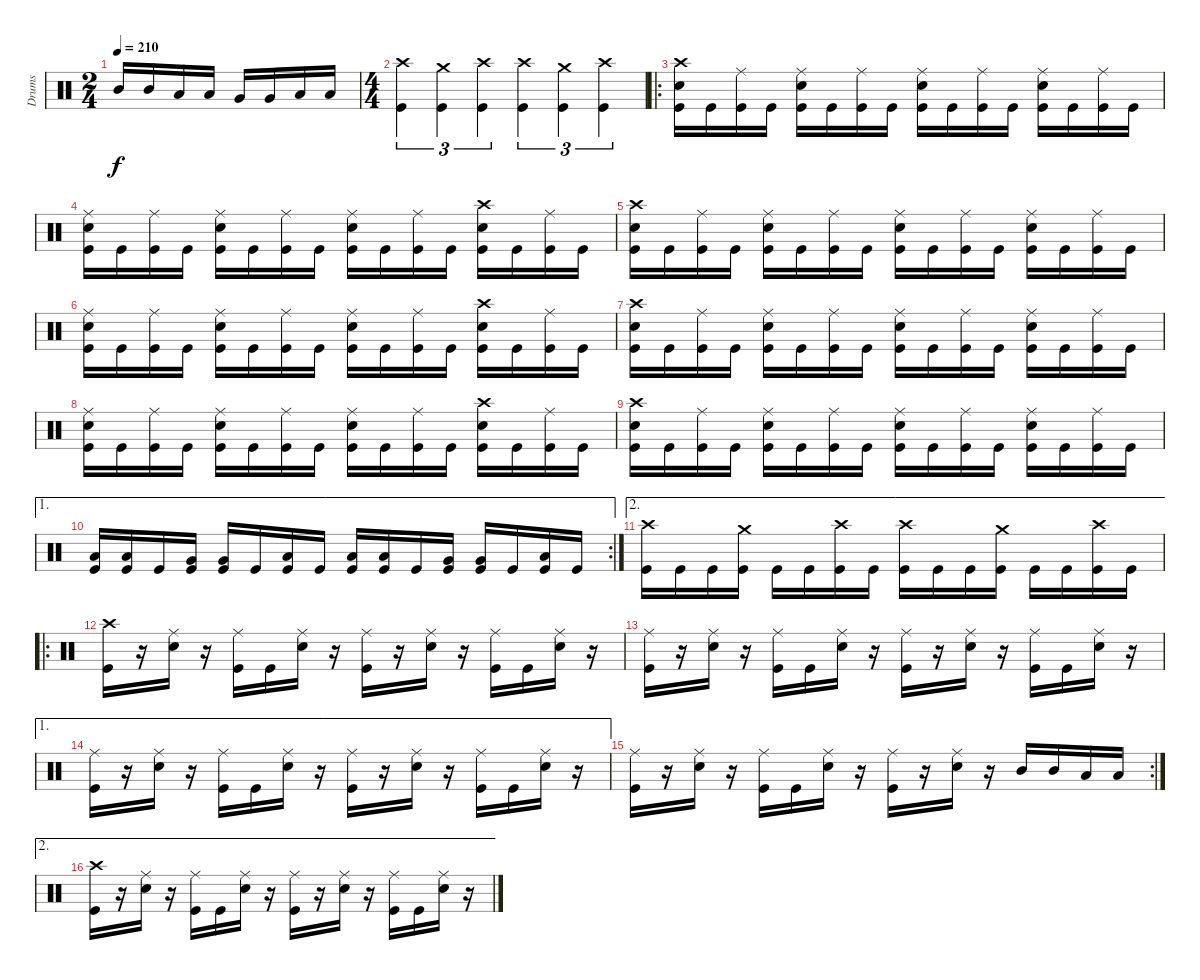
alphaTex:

\track ("Drums" "Drums") {instrument percussion}
\staff {score}
\articulation defaults
\ts (2 4)
\tempo 210
\clef neutral
\ks c "Mid Tom (hit)".16{dy f} "Mid Tom (hit)".16 "Low Tom (hit)".16 "Low Tom (hit)".16 "Very Low Tom (hit)".16 "Very Low Tom (hit)".16 "Low Floor Tom (hit)".16 "Low Floor Tom (hit)".16
|
\ts (4 4)
("Crash high (hit)" "Kick (hit)").4{tu (3 2)} ("Crash medium (hit)" "Kick (hit)").4{tu (3 2)} ("Crash high (hit)" "Kick (hit)").4{tu (3 2)} ("Crash high (hit)" "Kick (hit)").4{tu (3 2)} ("Crash medium (hit)" "Kick (hit)").4{tu (3 2)} ("Crash high (hit)" "Kick (hit)").4{tu (3 2)} |
\ro
("Crash high (hit)" "Snare (hit) 2" "Kick (hit)").16 "Kick (hit)".16 ("Ride (middle)" "Kick (hit)").16 "Kick (hit)".16 ("Ride (middle)" "Snare (hit) 2" "Kick (hit)").16 "Kick (hit)".16 ("Ride (middle)" "Kick (hit)").16 "Kick (hit)".16 ("Ride (middle)" "Snare (hit) 2" "Kick (hit)").16 "Kick (hit)".16 ("Ride (middle)" "Kick (hit)").16 "Kick (hit)".16 ("Ride (middle)" "Snare (hit) 2" "Kick (hit)").16 "Kick (hit)".16 ("Ride (middle)" "Kick (hit)").16 "Kick (hit)".16 |
("Ride (middle)" "Snare (hit) 2" "Kick (hit)").16 "Kick (hit)".16 ("Ride (middle)" "Kick (hit)").16 "Kick (hit)".16 ("Ride (middle)" "Snare (hit) 2" "Kick (hit)").16 "Kick (hit)".16 ("Ride (middle)" "Kick (hit)").16 "Kick (hit)".16 ("Ride (middle)" "Snare (hit) 2" "Kick (hit)").16 "Kick (hit)".16 ("Ride (middle)" "Kick (hit)").16 "Kick (hit)".16 ("Crash high (hit)" "Snare (hit) 2" "Kick (hit)").16 "Kick (hit)".16 ("Ride (middle)" "Kick (hit)").16 "Kick (hit)".16 |
("Crash high (hit)" "Snare (hit) 2" "Kick (hit)").16 "Kick (hit)".16 ("Ride (middle)" "Kick (hit)").16 "Kick (hit)".16 ("Ride (middle)" "Snare (hit) 2" "Kick (hit)").16 "Kick (hit)".16 ("Ride (middle)" "Kick (hit)").16 "Kick (hit)".16 ("Ride (middle)" "Snare (hit) 2" "Kick (hit)").16 "Kick (hit)".16 ("Ride (middle)" "Kick (hit)").16 "Kick (hit)".16 ("Ride (middle)" "Snare (hit) 2" "Kick (hit)").16 "Kick (hit)".16 ("Ride (middle)" "Kick (hit)").16 "Kick (hit)".16 |
("Ride (middle)" "Snare (hit) 2" "Kick (hit)").16 "Kick (hit)".16 ("Ride (middle)" "Kick (hit)").16 "Kick (hit)".16 ("Ride (middle)" "Snare (hit) 2" "Kick (hit)").16 "Kick (hit)".16 ("Ride (middle)" "Kick (hit)").16 "Kick (hit)".16 ("Ride (middle)" "Snare (hit) 2" "Kick (hit)").16 "Kick (hit)".16 ("Ride (middle)" "Kick (hit)").16 "Kick (hit)".16 ("Crash high (hit)" "Snare (hit) 2" "Kick (hit)").16 "Kick (hit)".16 ("Ride (middle)" "Kick (hit)").16 "Kick (hit)".16 |
("Crash high (hit)" "Snare (hit) 2" "Kick (hit)").16 "Kick (hit)".16 ("Ride (middle)" "Kick (hit)").16 "Kick (hit)".16 ("Ride (middle)" "Snare (hit) 2" "Kick (hit)").16 "Kick (hit)".16 ("Ride (middle)" "Kick (hit)").16 "Kick (hit)".16 ("Ride (middle)" "Snare (hit) 2" "Kick (hit)").16 "Kick (hit)".16 ("Ride (middle)" "Kick (hit)").16 "Kick (hit)".16 ("Ride (middle)" "Snare (hit) 2" "Kick (hit)").16 "Kick (hit)".16 ("Ride (middle)" "Kick (hit)").16 "Kick (hit)".16 |
("Ride (middle)" "Snare (hit) 2" "Kick (hit)").16 "Kick (hit)".16 ("Ride (middle)" "Kick (hit)").16 "Kick (hit)".16 ("Ride (middle)" "Snare (hit) 2" "Kick (hit)").16 "Kick (hit)".16 ("Ride (middle)" "Kick (hit)").16 "Kick (hit)".16 ("Ride (middle)" "Snare (hit) 2" "Kick (hit)").16 "Kick (hit)".16 ("Ride (middle)" "Kick (hit)").16 "Kick (hit)".16 ("Crash high (hit)" "Snare (hit) 2" "Kick (hit)").16 "Kick (hit)".16 ("Ride (middle)" "Kick (hit)").16 "Kick (hit)".16 |
("Crash high (hit)" "Snare (hit) 2" "Kick (hit)").16 "Kick (hit)".16 ("Ride (middle)" "Kick (hit)").16 "Kick (hit)".16 ("Ride (middle)" "Snare (hit) 2" "Kick (hit)").16 "Kick (hit)".16 ("Ride (middle)" "Kick (hit)").16 "Kick (hit)".16 ("Ride (middle)" "Snare (hit) 2" "Kick (hit)").16 "Kick (hit)".16 ("Ride (middle)" "Kick (hit)").16 "Kick (hit)".16 ("Ride (middle)" "Snare (hit) 2" "Kick (hit)").16 "Kick (hit)".16 ("Ride (middle)" "Kick (hit)").16 "Kick (hit)".16 |
\ae 1
\rc 2
("Low Tom (hit)" "Kick (hit)").16 ("Low Tom (hit)" "Kick (hit)").16 "Kick (hit)".16 ("Very Low Tom (hit)" "Kick (hit)").16 ("Very Low Tom (hit)" "Kick (hit)").16 "Kick (hit)".16 ("Low Floor Tom (hit)" "Kick (hit)").16 "Kick (hit)".16 ("Low Tom (hit)" "Kick (hit)").16 ("Low Tom (hit)" "Kick (hit)").16 "Kick (hit)".16 ("Very Low Tom (hit)" "Kick (hit)").16 ("Very Low Tom (hit)" "Kick (hit)").16 "Kick (hit)".16 ("Low Floor Tom (hit)" "Kick (hit)").16 "Kick (hit)".16 |
\ae 2
("Crash high (hit)" "Kick (hit)").16 "Kick (hit)".16 "Kick (hit)".16 ("Crash medium (hit)" "Kick (hit)").16 "Kick (hit)".16 "Kick (hit)".16 ("Crash high (hit)" "Kick (hit)").16 "Kick (hit)".16 ("Crash high (hit)" "Kick (hit)").16 "Kick (hit)".16 "Kick (hit)".16 ("Crash medium (hit)" "Kick (hit)").16 "Kick (hit)".16 "Kick (hit)".16 ("Crash high (hit)" "Kick (hit)").16 "Kick (hit)".16 |
\ro
("Crash high (hit)" "Kick (hit)").16 r.16 ("Ride (middle)" "Snare (hit) 2").16 r.16 ("Ride (middle)" "Kick (hit)").16 "Kick (hit)".16 ("Ride (middle)" "Snare (hit) 2").16 r.16 ("Ride (middle)" "Kick (hit)").16 r.16 ("Ride (middle)" "Snare (hit) 2").16 r.16 ("Ride (middle)" "Kick (hit)").16 "Kick (hit)".16 ("Ride (middle)" "Snare (hit) 2").16 r.16 |
("Ride (middle)" "Kick (hit)").16 r.16 ("Ride (middle)" "Snare (hit) 2").16 r.16 ("Ride (middle)" "Kick (hit)").16 "Kick (hit)".16 ("Ride (middle)" "Snare (hit) 2").16 r.16 ("Ride (middle)" "Kick (hit)").16 r.16 ("Ride (middle)" "Snare (hit) 2").16 r.16 ("Ride (middle)" "Kick (hit)").16 "Kick (hit)".16 ("Ride (middle)" "Snare (hit) 2").16 r.16 |
\ae 1
("Ride (middle)" "Kick (hit)").16 r.16 ("Ride (middle)" "Snare (hit) 2").16 r.16 ("Ride (middle)" "Kick (hit)").16 "Kick (hit)".16 ("Ride (middle)" "Snare (hit) 2").16 r.16 ("Ride (middle)" "Kick (hit)").16 r.16 ("Ride (middle)" "Snare (hit) 2").16 r.16 ("Ride (middle)" "Kick (hit)").16 "Kick (hit)".16 ("Ride (middle)" "Snare (hit) 2").16 r.16 |
\rc 2
("Ride (middle)" "Kick (hit)").16 r.16 ("Ride (middle)" "Snare (hit) 2").16 r.16 ("Ride (middle)" "Kick (hit)").16 "Kick (hit)".16 ("Ride (middle)" "Snare (hit) 2").16 r.16 ("Ride (middle)" "Kick (hit)").16 r.16 ("Ride (middle)" "Snare (hit) 2").16 r.16 "Mid Tom (hit)".16 "Mid Tom (hit)".16 "Low Tom (hit)".16 "Low Tom (hit)".16 |
\ae 2
("Crash high (hit)" "Kick (hit)").16 r.16 ("Ride (middle)" "Snare (hit) 2").16 r.16 ("Ride (middle)" "Kick (hit)").16 "Kick (hit)".16 ("Ride (middle)" "Snare (hit) 2").16 r.16 ("Ride (middle)" "Kick (hit)").16 r.16 ("Ride (middle)" "Snare (hit) 2").16 r.16 ("Ride (middle)" "Kick (hit)").16 "Kick (hit)".16 ("Ride (middle)" "Snare (hit) 2").16 r.16
